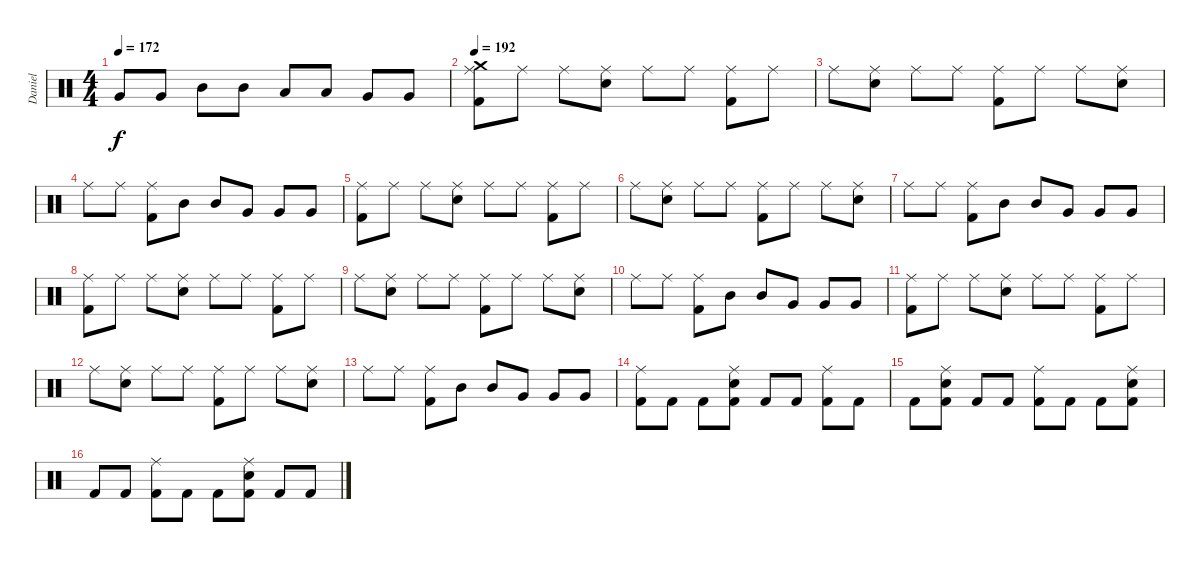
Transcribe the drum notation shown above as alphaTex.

\track ("Daniel" "Daniel") {instrument percussion}
\staff {score}
\articulation defaults
\ts (4 4)
\tempo 172
\clef neutral
\ks c "Very Low Tom (hit)".8{dy f} "Very Low Tom (hit)".8 "Mid Tom (hit)".8 "Mid Tom (hit)".8 "Low Floor Tom (hit)".8 "Low Floor Tom (hit)".8 "Very Low Tom (hit)".8 "Very Low Tom (hit)".8
|
\tempo 192
("Ride (middle)" "Crash medium (hit)" "Kick (hit) 2").8 "Ride (middle)".8 "Ride (middle)".8 ("Ride (middle)" "Electric Snare (hit)").8 "Ride (middle)".8 "Ride (middle)".8 ("Ride (middle)" "Kick (hit) 2").8 "Ride (middle)".8 |
"Ride (middle)".8 ("Ride (middle)" "Electric Snare (hit)").8 "Ride (middle)".8 "Ride (middle)".8 ("Ride (middle)" "Kick (hit) 2").8 "Ride (middle)".8 "Ride (middle)".8 ("Ride (middle)" "Electric Snare (hit)").8 |
"Ride (middle)".8 "Ride (middle)".8 ("Ride (middle)" "Kick (hit) 2").8 "Mid Tom (hit)".8 "Mid Tom (hit)".8 "Very Low Tom (hit)".8 "Very Low Tom (hit)".8 "Very Low Tom (hit)".8 |
("Ride (middle)" "Kick (hit) 2").8 "Ride (middle)".8 "Ride (middle)".8 ("Ride (middle)" "Electric Snare (hit)").8 "Ride (middle)".8 "Ride (middle)".8 ("Ride (middle)" "Kick (hit) 2").8 "Ride (middle)".8 |
"Ride (middle)".8 ("Ride (middle)" "Electric Snare (hit)").8 "Ride (middle)".8 "Ride (middle)".8 ("Ride (middle)" "Kick (hit) 2").8 "Ride (middle)".8 "Ride (middle)".8 ("Ride (middle)" "Electric Snare (hit)").8 |
"Ride (middle)".8 "Ride (middle)".8 ("Ride (middle)" "Kick (hit) 2").8 "Mid Tom (hit)".8 "Mid Tom (hit)".8 "Very Low Tom (hit)".8 "Very Low Tom (hit)".8 "Very Low Tom (hit)".8 |
("Ride (middle)" "Kick (hit) 2").8 "Ride (middle)".8 "Ride (middle)".8 ("Ride (middle)" "Electric Snare (hit)").8 "Ride (middle)".8 "Ride (middle)".8 ("Ride (middle)" "Kick (hit) 2").8 "Ride (middle)".8 |
"Ride (middle)".8 ("Ride (middle)" "Electric Snare (hit)").8 "Ride (middle)".8 "Ride (middle)".8 ("Ride (middle)" "Kick (hit) 2").8 "Ride (middle)".8 "Ride (middle)".8 ("Ride (middle)" "Electric Snare (hit)").8 |
"Ride (middle)".8 "Ride (middle)".8 ("Ride (middle)" "Kick (hit) 2").8 "Mid Tom (hit)".8 "Mid Tom (hit)".8 "Very Low Tom (hit)".8 "Very Low Tom (hit)".8 "Very Low Tom (hit)".8 |
("Ride (middle)" "Kick (hit) 2").8 "Ride (middle)".8 "Ride (middle)".8 ("Ride (middle)" "Electric Snare (hit)").8 "Ride (middle)".8 "Ride (middle)".8 ("Ride (middle)" "Kick (hit) 2").8 "Ride (middle)".8 |
"Ride (middle)".8 ("Ride (middle)" "Electric Snare (hit)").8 "Ride (middle)".8 "Ride (middle)".8 ("Ride (middle)" "Kick (hit) 2").8 "Ride (middle)".8 "Ride (middle)".8 ("Ride (middle)" "Electric Snare (hit)").8 |
"Ride (middle)".8 "Ride (middle)".8 ("Ride (middle)" "Kick (hit) 2").8 "Mid Tom (hit)".8 "Mid Tom (hit)".8 "Very Low Tom (hit)".8 "Very Low Tom (hit)".8 "Very Low Tom (hit)".8 |
("Ride (middle)" "Kick (hit) 2").8 "Kick (hit) 2".8 "Kick (hit) 2".8 ("Ride (middle)" "Electric Snare (hit)" "Kick (hit) 2").8 "Kick (hit) 2".8 "Kick (hit) 2".8 ("Ride (middle)" "Kick (hit) 2").8 "Kick (hit) 2".8 |
"Kick (hit) 2".8 ("Ride (middle)" "Electric Snare (hit)" "Kick (hit) 2").8 "Kick (hit) 2".8 "Kick (hit) 2".8 ("Ride (middle)" "Kick (hit) 2").8 "Kick (hit) 2".8 "Kick (hit) 2".8 ("Ride (middle)" "Electric Snare (hit)" "Kick (hit) 2").8 |
"Kick (hit) 2".8 "Kick (hit) 2".8 ("Ride (middle)" "Kick (hit) 2").8 "Kick (hit) 2".8 "Kick (hit) 2".8 ("Ride (middle)" "Electric Snare (hit)" "Kick (hit) 2").8 "Kick (hit) 2".8 "Kick (hit) 2".8
